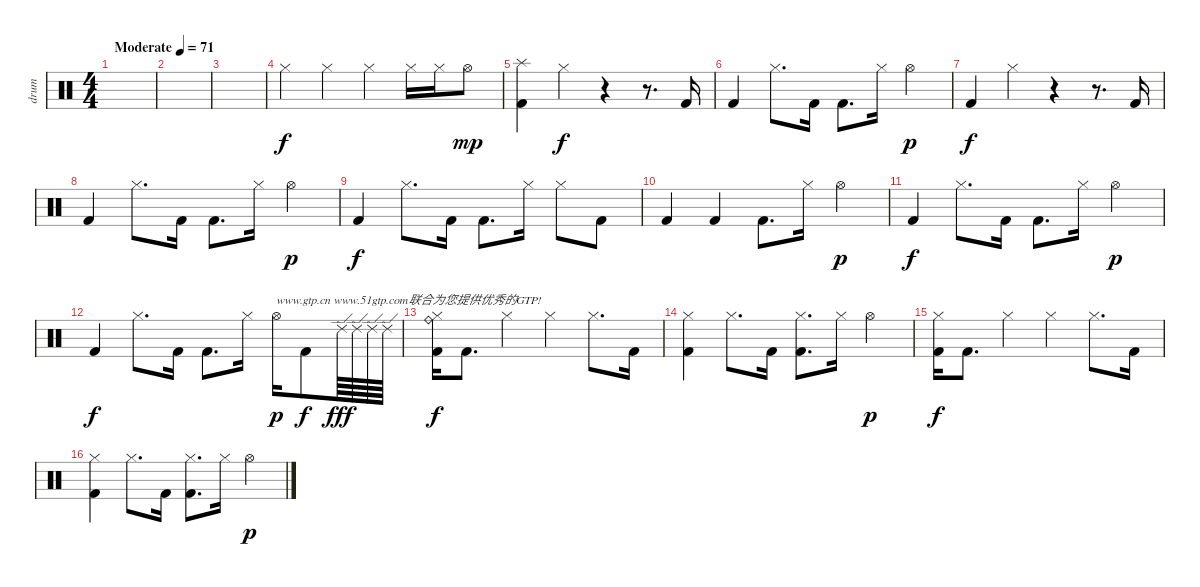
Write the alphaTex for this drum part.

\track ("drum" "drum") {instrument percussion}
\staff {score}
\articulation defaults
\ts (4 4)
\tempo (71 "Moderate")
\clef neutral
\ks c
|
|
|
"Hi-Hat (closed)".4 "Hi-Hat (closed)".4 "Hi-Hat (closed)".4 "Hi-Hat (closed)".16 "Hi-Hat (closed)".16 "Hi-Hat (open)".8{dy mp} |
("Splash (hit)" "Kick (hit) 2").4 "Hi-Hat (closed)".4{dy f} r.4 r.8{d} "Kick (hit) 2".16 |
"Kick (hit) 2".4 "Hi-Hat (closed)".8{d} "Kick (hit) 2".16 "Kick (hit) 2".8{d} "Hi-Hat (closed)".16 "Hi-Hat (open)".4{dy p} |
"Kick (hit) 2".4{dy f} "Hi-Hat (closed)".4 r.4 r.8{d} "Kick (hit) 2".16 |
"Kick (hit) 2".4 "Hi-Hat (closed)".8{d} "Kick (hit) 2".16 "Kick (hit) 2".8{d} "Hi-Hat (closed)".16 "Hi-Hat (open)".4{dy p} |
"Kick (hit) 2".4{dy f} "Hi-Hat (closed)".8{d} "Kick (hit) 2".16 "Kick (hit) 2".8{d} "Hi-Hat (closed)".16 "Hi-Hat (closed)".8 "Kick (hit) 2".8 |
"Kick (hit) 2".4 "Kick (hit) 2".4 "Kick (hit) 2".8{d} "Hi-Hat (closed)".16 "Hi-Hat (open)".4{dy p} |
"Kick (hit) 2".4{dy f} "Hi-Hat (closed)".8{d} "Kick (hit) 2".16 "Kick (hit) 2".8{d} "Hi-Hat (closed)".16 "Hi-Hat (open)".4{dy p} |
"Kick (hit) 2".4{dy f} "Hi-Hat (closed)".8{d} "Kick (hit) 2".16 "Kick (hit) 2".8{d} "Hi-Hat (closed)".16 "Hi-Hat (open)".16{txt "www.gtp.cn www.51gtp.com联合为您提供优秀的GTP!" dy p} "Kick (hit) 2".8{dy f} "Ride (edge) 2".64{dy fff} "Ride (edge) 2".64 "Ride (edge) 2".64 "Ride (edge) 2".64 |
("Hi-Hat (closed)" "Ride (bell)" "Kick (hit) 2").16{dy f} "Kick (hit) 2".8{d} "Hi-Hat (closed)".4 "Hi-Hat (closed)".4 "Hi-Hat (closed)".8{d} "Kick (hit) 2".16 |
("Hi-Hat (closed)" "Kick (hit) 2").4 "Hi-Hat (closed)".8{d} "Kick (hit) 2".16 ("Hi-Hat (closed)" "Kick (hit) 2").8{d} "Hi-Hat (closed)".16 "Hi-Hat (open)".4{dy p} |
("Hi-Hat (closed)" "Kick (hit) 2").16{dy f} "Kick (hit) 2".8{d} "Hi-Hat (closed)".4 "Hi-Hat (closed)".4 "Hi-Hat (closed)".8{d} "Kick (hit) 2".16 |
("Hi-Hat (closed)" "Kick (hit) 2").4 "Hi-Hat (closed)".8{d} "Kick (hit) 2".16 ("Hi-Hat (closed)" "Kick (hit) 2").8{d} "Hi-Hat (closed)".16 "Hi-Hat (open)".4{dy p}
